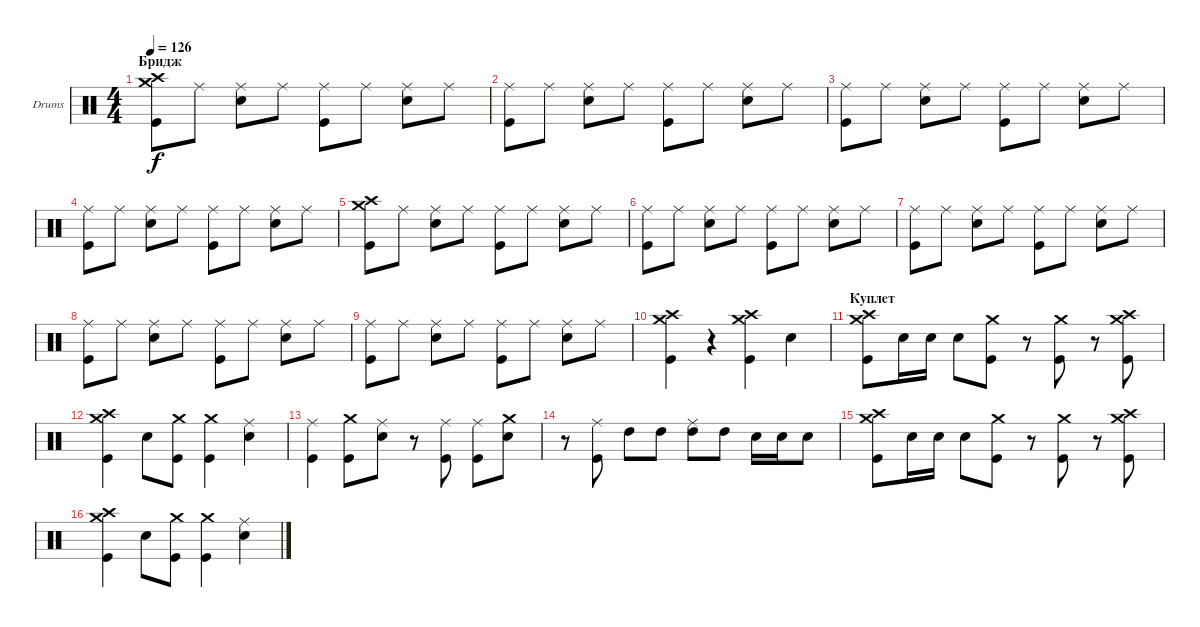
\bracketExtendMode groupsimilarinstruments
\firstSystemTrackNameOrientation horizontal
\otherSystemsTrackNameOrientation horizontal
\track ("Александр Манякин" "Drums") {instrument percussion}
\staff {score}
\articulation defaults
\ts (4 4)
\section ("" "Бридж")
\tempo 126
\clef neutral
\ks c
("Kick (hit)" "Crash medium (hit)" "Crash high (hit)").8{dy f} "Ride (middle)".8 ("Snare (hit) 2" "Ride (middle)").8 "Ride (middle)".8 ("Kick (hit)" "Ride (middle)").8 "Ride (middle)".8 ("Snare (hit) 2" "Ride (middle)").8 "Ride (middle)".8 |
("Kick (hit)" "Ride (middle)").8 "Ride (middle)".8 ("Snare (hit) 2" "Ride (middle)").8 "Ride (middle)".8 ("Kick (hit)" "Ride (middle)").8 "Ride (middle)".8 ("Snare (hit) 2" "Ride (middle)").8 "Ride (middle)".8 |
("Kick (hit)" "Ride (middle)").8 "Ride (middle)".8 ("Snare (hit) 2" "Ride (middle)").8 "Ride (middle)".8 ("Kick (hit)" "Ride (middle)").8 "Ride (middle)".8 ("Snare (hit) 2" "Ride (middle)").8 "Ride (middle)".8 |
("Kick (hit)" "Ride (middle)").8 "Ride (middle)".8 ("Snare (hit) 2" "Ride (middle)").8 "Ride (middle)".8 ("Kick (hit)" "Ride (middle)").8 "Ride (middle)".8 ("Snare (hit) 2" "Ride (middle)").8 "Ride (middle)".8 |
("Crash medium (hit)" "Crash high (hit)" "Kick (hit)").8 "Ride (middle)".8 ("Snare (hit) 2" "Ride (middle)").8 "Ride (middle)".8 ("Kick (hit)" "Ride (middle)").8 "Ride (middle)".8 ("Snare (hit) 2" "Ride (middle)").8 "Ride (middle)".8 |
("Kick (hit)" "Ride (middle)").8 "Ride (middle)".8 ("Snare (hit) 2" "Ride (middle)").8 "Ride (middle)".8 ("Kick (hit)" "Ride (middle)").8 "Ride (middle)".8 ("Snare (hit) 2" "Ride (middle)").8 "Ride (middle)".8 |
("Kick (hit)" "Ride (middle)").8 "Ride (middle)".8 ("Snare (hit) 2" "Ride (middle)").8 "Ride (middle)".8 ("Kick (hit)" "Ride (middle)").8 "Ride (middle)".8 ("Snare (hit) 2" "Ride (middle)").8 "Ride (middle)".8 |
("Kick (hit)" "Ride (middle)").8 "Ride (middle)".8 ("Snare (hit) 2" "Ride (middle)").8 "Ride (middle)".8 ("Kick (hit)" "Ride (middle)").8 "Ride (middle)".8 ("Snare (hit) 2" "Ride (middle)").8 "Ride (middle)".8 |
("Kick (hit)" "Ride (middle)").8 "Ride (middle)".8 ("Snare (hit) 2" "Ride (middle)").8 "Ride (middle)".8 ("Kick (hit)" "Ride (middle)").8 "Ride (middle)".8 ("Snare (hit) 2" "Ride (middle)").8 "Ride (middle)".8 |
("Kick (hit)" "Crash medium (hit)" "Crash high (hit)").4 r.4 ("Kick (hit)" "Crash medium (hit)" "Crash high (hit)").4 "Snare (hit) 2".4 |
\section ("" "Куплет")
("Kick (hit)" "Crash medium (hit)" "Crash high (hit)").8 "Snare (hit) 2".16 "Snare (hit) 2".16 "Snare (hit) 2".8 ("Kick (hit)" "Crash medium (hit)").8 r.8 ("Kick (hit)" "Crash medium (hit)").8 r.8 ("Kick (hit)" "Crash high (hit)" "Crash medium (hit)").8 |
("Kick (hit)" "Crash medium (hit)" "Crash high (hit)").4 "Snare (hit) 2".8 ("Kick (hit)" "Crash medium (hit)").8 ("Kick (hit)" "Crash medium (hit)").4 ("Snare (hit) 2" "Ride (middle)").4 |
("Kick (hit)" "Ride (middle)").4 ("Kick (hit)" "Crash medium (hit)").8 ("Snare (hit) 2" "Ride (middle)").8 r.8 ("Kick (hit)" "Ride (middle)").8 ("Kick (hit)" "Ride (middle)").8 ("Snare (hit) 2" "Crash medium (hit)").8 |
r.8 ("Kick (hit)" "Ride (middle)").8 "High Tom (hit)".8 "High Tom (hit)".8 ("High Tom (hit)" "Ride (middle)").8 "High Tom (hit)".8 "Snare (hit) 2".16 "Snare (hit) 2".16 "Snare (hit) 2".8 |
("Kick (hit)" "Crash medium (hit)" "Crash high (hit)").8 "Snare (hit) 2".16 "Snare (hit) 2".16 "Snare (hit) 2".8 ("Kick (hit)" "Crash medium (hit)").8 r.8 ("Kick (hit)" "Crash medium (hit)").8 r.8 ("Kick (hit)" "Crash high (hit)" "Crash medium (hit)").8 |
("Kick (hit)" "Crash medium (hit)" "Crash high (hit)").4 "Snare (hit) 2".8 ("Kick (hit)" "Crash medium (hit)").8 ("Kick (hit)" "Crash medium (hit)").4 ("Snare (hit) 2" "Ride (middle)").4
